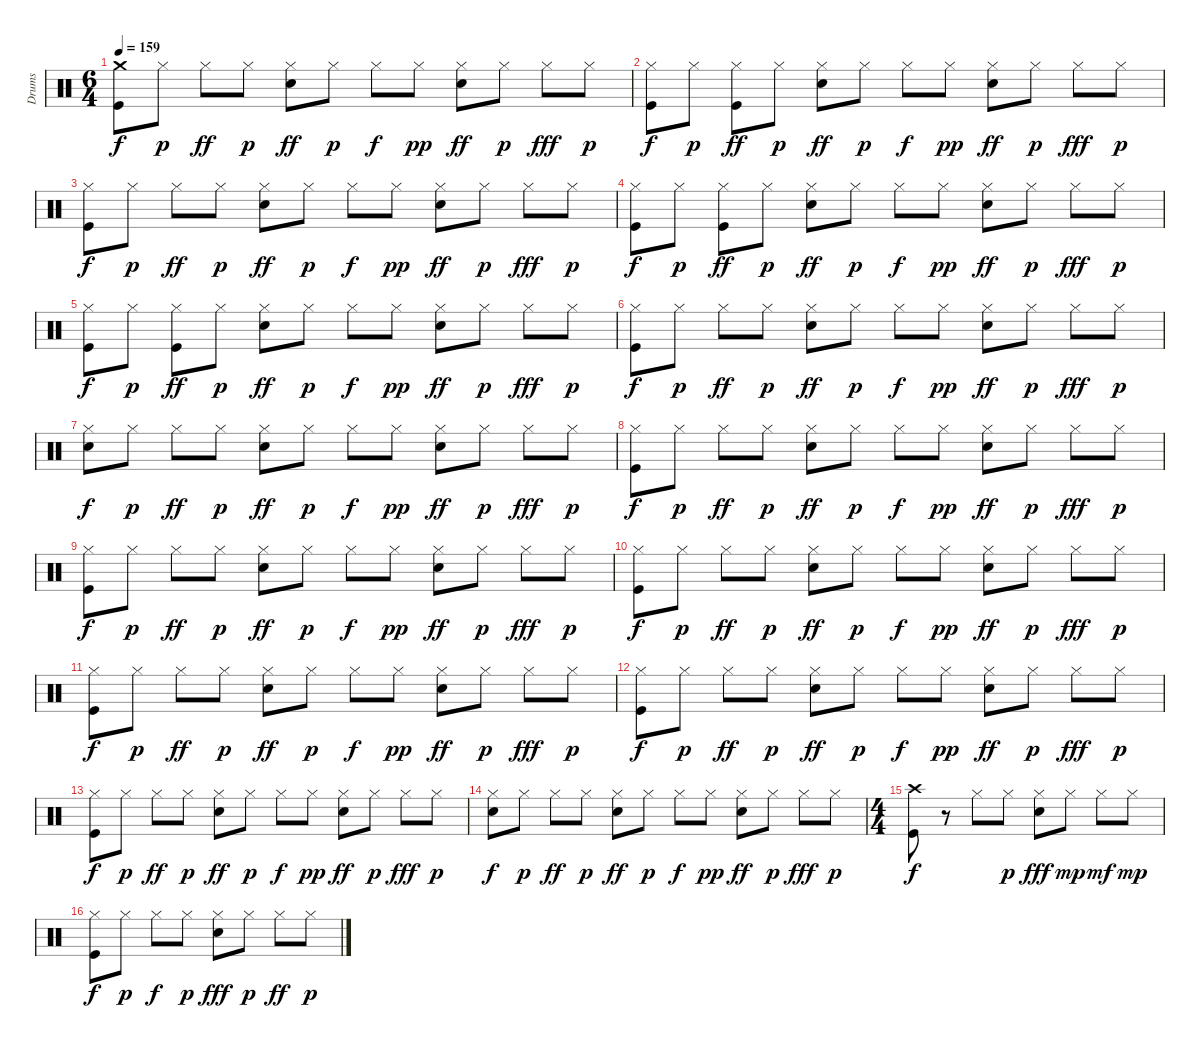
\track ("Drums" "Drums") {instrument percussion}
\staff {score}
\articulation defaults
\ts (6 4)
\tempo 159
\clef neutral
\ks c
("Kick (hit)" "Crash medium (hit)").8{dy f} "Hi-Hat (closed)".8{dy p} "Hi-Hat (closed)".8{dy ff} "Hi-Hat (closed)".8{dy p} ("Electric Snare (hit)" "Hi-Hat (closed)").8{dy ff} "Hi-Hat (closed)".8{dy p} "Hi-Hat (closed)".8{dy f} "Hi-Hat (closed)".8{dy pp} ("Electric Snare (hit)" "Hi-Hat (closed)").8{dy ff} "Hi-Hat (closed)".8{dy p} "Hi-Hat (closed)".8{dy fff} "Hi-Hat (closed)".8{dy p} |
("Kick (hit)" "Hi-Hat (closed)").8{dy f} "Hi-Hat (closed)".8{dy p} ("Kick (hit)" "Hi-Hat (closed)").8{dy ff} "Hi-Hat (closed)".8{dy p} ("Electric Snare (hit)" "Hi-Hat (closed)").8{dy ff} "Hi-Hat (closed)".8{dy p} "Hi-Hat (closed)".8{dy f} "Hi-Hat (closed)".8{dy pp} ("Electric Snare (hit)" "Hi-Hat (closed)").8{dy ff} "Hi-Hat (closed)".8{dy p} "Hi-Hat (closed)".8{dy fff} "Hi-Hat (closed)".8{dy p} |
("Kick (hit)" "Hi-Hat (closed)").8{dy f} "Hi-Hat (closed)".8{dy p} "Hi-Hat (closed)".8{dy ff} "Hi-Hat (closed)".8{dy p} ("Electric Snare (hit)" "Hi-Hat (closed)").8{dy ff} "Hi-Hat (closed)".8{dy p} "Hi-Hat (closed)".8{dy f} "Hi-Hat (closed)".8{dy pp} ("Electric Snare (hit)" "Hi-Hat (closed)").8{dy ff} "Hi-Hat (closed)".8{dy p} "Hi-Hat (closed)".8{dy fff} "Hi-Hat (closed)".8{dy p} |
("Kick (hit)" "Hi-Hat (closed)").8{dy f} "Hi-Hat (closed)".8{dy p} ("Kick (hit)" "Hi-Hat (closed)").8{dy ff} "Hi-Hat (closed)".8{dy p} ("Electric Snare (hit)" "Hi-Hat (closed)").8{dy ff} "Hi-Hat (closed)".8{dy p} "Hi-Hat (closed)".8{dy f} "Hi-Hat (closed)".8{dy pp} ("Electric Snare (hit)" "Hi-Hat (closed)").8{dy ff} "Hi-Hat (closed)".8{dy p} "Hi-Hat (closed)".8{dy fff} "Hi-Hat (closed)".8{dy p} |
("Kick (hit)" "Hi-Hat (closed)").8{dy f} "Hi-Hat (closed)".8{dy p} ("Kick (hit)" "Hi-Hat (closed)").8{dy ff} "Hi-Hat (closed)".8{dy p} ("Electric Snare (hit)" "Hi-Hat (closed)").8{dy ff} "Hi-Hat (closed)".8{dy p} "Hi-Hat (closed)".8{dy f} "Hi-Hat (closed)".8{dy pp} ("Electric Snare (hit)" "Hi-Hat (closed)").8{dy ff} "Hi-Hat (closed)".8{dy p} "Hi-Hat (closed)".8{dy fff} "Hi-Hat (closed)".8{dy p} |
("Kick (hit)" "Hi-Hat (closed)").8{dy f} "Hi-Hat (closed)".8{dy p} "Hi-Hat (closed)".8{dy ff} "Hi-Hat (closed)".8{dy p} ("Electric Snare (hit)" "Hi-Hat (closed)").8{dy ff} "Hi-Hat (closed)".8{dy p} "Hi-Hat (closed)".8{dy f} "Hi-Hat (closed)".8{dy pp} ("Electric Snare (hit)" "Hi-Hat (closed)").8{dy ff} "Hi-Hat (closed)".8{dy p} "Hi-Hat (closed)".8{dy fff} "Hi-Hat (closed)".8{dy p} |
("Electric Snare (hit)" "Hi-Hat (closed)").8{dy f} "Hi-Hat (closed)".8{dy p} "Hi-Hat (closed)".8{dy ff} "Hi-Hat (closed)".8{dy p} ("Electric Snare (hit)" "Hi-Hat (closed)").8{dy ff} "Hi-Hat (closed)".8{dy p} "Hi-Hat (closed)".8{dy f} "Hi-Hat (closed)".8{dy pp} ("Electric Snare (hit)" "Hi-Hat (closed)").8{dy ff} "Hi-Hat (closed)".8{dy p} "Hi-Hat (closed)".8{dy fff} "Hi-Hat (closed)".8{dy p} |
("Kick (hit)" "Hi-Hat (closed)").8{dy f} "Hi-Hat (closed)".8{dy p} "Hi-Hat (closed)".8{dy ff} "Hi-Hat (closed)".8{dy p} ("Electric Snare (hit)" "Hi-Hat (closed)").8{dy ff} "Hi-Hat (closed)".8{dy p} "Hi-Hat (closed)".8{dy f} "Hi-Hat (closed)".8{dy pp} ("Electric Snare (hit)" "Hi-Hat (closed)").8{dy ff} "Hi-Hat (closed)".8{dy p} "Hi-Hat (closed)".8{dy fff} "Hi-Hat (closed)".8{dy p} |
("Kick (hit)" "Hi-Hat (closed)").8{dy f} "Hi-Hat (closed)".8{dy p} "Hi-Hat (closed)".8{dy ff} "Hi-Hat (closed)".8{dy p} ("Electric Snare (hit)" "Hi-Hat (closed)").8{dy ff} "Hi-Hat (closed)".8{dy p} "Hi-Hat (closed)".8{dy f} "Hi-Hat (closed)".8{dy pp} ("Electric Snare (hit)" "Hi-Hat (closed)").8{dy ff} "Hi-Hat (closed)".8{dy p} "Hi-Hat (closed)".8{dy fff} "Hi-Hat (closed)".8{dy p} |
("Kick (hit)" "Hi-Hat (closed)").8{dy f} "Hi-Hat (closed)".8{dy p} "Hi-Hat (closed)".8{dy ff} "Hi-Hat (closed)".8{dy p} ("Electric Snare (hit)" "Hi-Hat (closed)").8{dy ff} "Hi-Hat (closed)".8{dy p} "Hi-Hat (closed)".8{dy f} "Hi-Hat (closed)".8{dy pp} ("Electric Snare (hit)" "Hi-Hat (closed)").8{dy ff} "Hi-Hat (closed)".8{dy p} "Hi-Hat (closed)".8{dy fff} "Hi-Hat (closed)".8{dy p} |
("Kick (hit)" "Hi-Hat (closed)").8{dy f} "Hi-Hat (closed)".8{dy p} "Hi-Hat (closed)".8{dy ff} "Hi-Hat (closed)".8{dy p} ("Electric Snare (hit)" "Hi-Hat (closed)").8{dy ff} "Hi-Hat (closed)".8{dy p} "Hi-Hat (closed)".8{dy f} "Hi-Hat (closed)".8{dy pp} ("Electric Snare (hit)" "Hi-Hat (closed)").8{dy ff} "Hi-Hat (closed)".8{dy p} "Hi-Hat (closed)".8{dy fff} "Hi-Hat (closed)".8{dy p} |
("Kick (hit)" "Hi-Hat (closed)").8{dy f} "Hi-Hat (closed)".8{dy p} "Hi-Hat (closed)".8{dy ff} "Hi-Hat (closed)".8{dy p} ("Electric Snare (hit)" "Hi-Hat (closed)").8{dy ff} "Hi-Hat (closed)".8{dy p} "Hi-Hat (closed)".8{dy f} "Hi-Hat (closed)".8{dy pp} ("Electric Snare (hit)" "Hi-Hat (closed)").8{dy ff} "Hi-Hat (closed)".8{dy p} "Hi-Hat (closed)".8{dy fff} "Hi-Hat (closed)".8{dy p} |
("Kick (hit)" "Hi-Hat (closed)").8{dy f} "Hi-Hat (closed)".8{dy p} "Hi-Hat (closed)".8{dy ff} "Hi-Hat (closed)".8{dy p} ("Electric Snare (hit)" "Hi-Hat (closed)").8{dy ff} "Hi-Hat (closed)".8{dy p} "Hi-Hat (closed)".8{dy f} "Hi-Hat (closed)".8{dy pp} ("Electric Snare (hit)" "Hi-Hat (closed)").8{dy ff} "Hi-Hat (closed)".8{dy p} "Hi-Hat (closed)".8{dy fff} "Hi-Hat (closed)".8{dy p} |
("Electric Snare (hit)" "Hi-Hat (closed)").8{dy f} "Hi-Hat (closed)".8{dy p} "Hi-Hat (closed)".8{dy ff} "Hi-Hat (closed)".8{dy p} ("Electric Snare (hit)" "Hi-Hat (closed)").8{dy ff} "Hi-Hat (closed)".8{dy p} "Hi-Hat (closed)".8{dy f} "Hi-Hat (closed)".8{dy pp} ("Electric Snare (hit)" "Hi-Hat (closed)").8{dy ff} "Hi-Hat (closed)".8{dy p} "Hi-Hat (closed)".8{dy fff} "Hi-Hat (closed)".8{dy p} |
\ts (4 4)
("Kick (hit)" "Crash high (hit)").8{dy f} r.8 "Hi-Hat (closed)".8 "Hi-Hat (closed)".8{dy p} ("Electric Snare (hit)" "Hi-Hat (closed)").8{dy fff} "Hi-Hat (closed)".8{dy mp} "Hi-Hat (closed)".8{dy mf} "Hi-Hat (closed)".8{dy mp} |
("Kick (hit)" "Hi-Hat (closed)").8{dy f} "Hi-Hat (closed)".8{dy p} "Hi-Hat (closed)".8{dy f} "Hi-Hat (closed)".8{dy p} ("Electric Snare (hit)" "Hi-Hat (closed)").8{dy fff} "Hi-Hat (closed)".8{dy p} "Hi-Hat (closed)".8{dy ff} "Hi-Hat (closed)".8{dy p}
